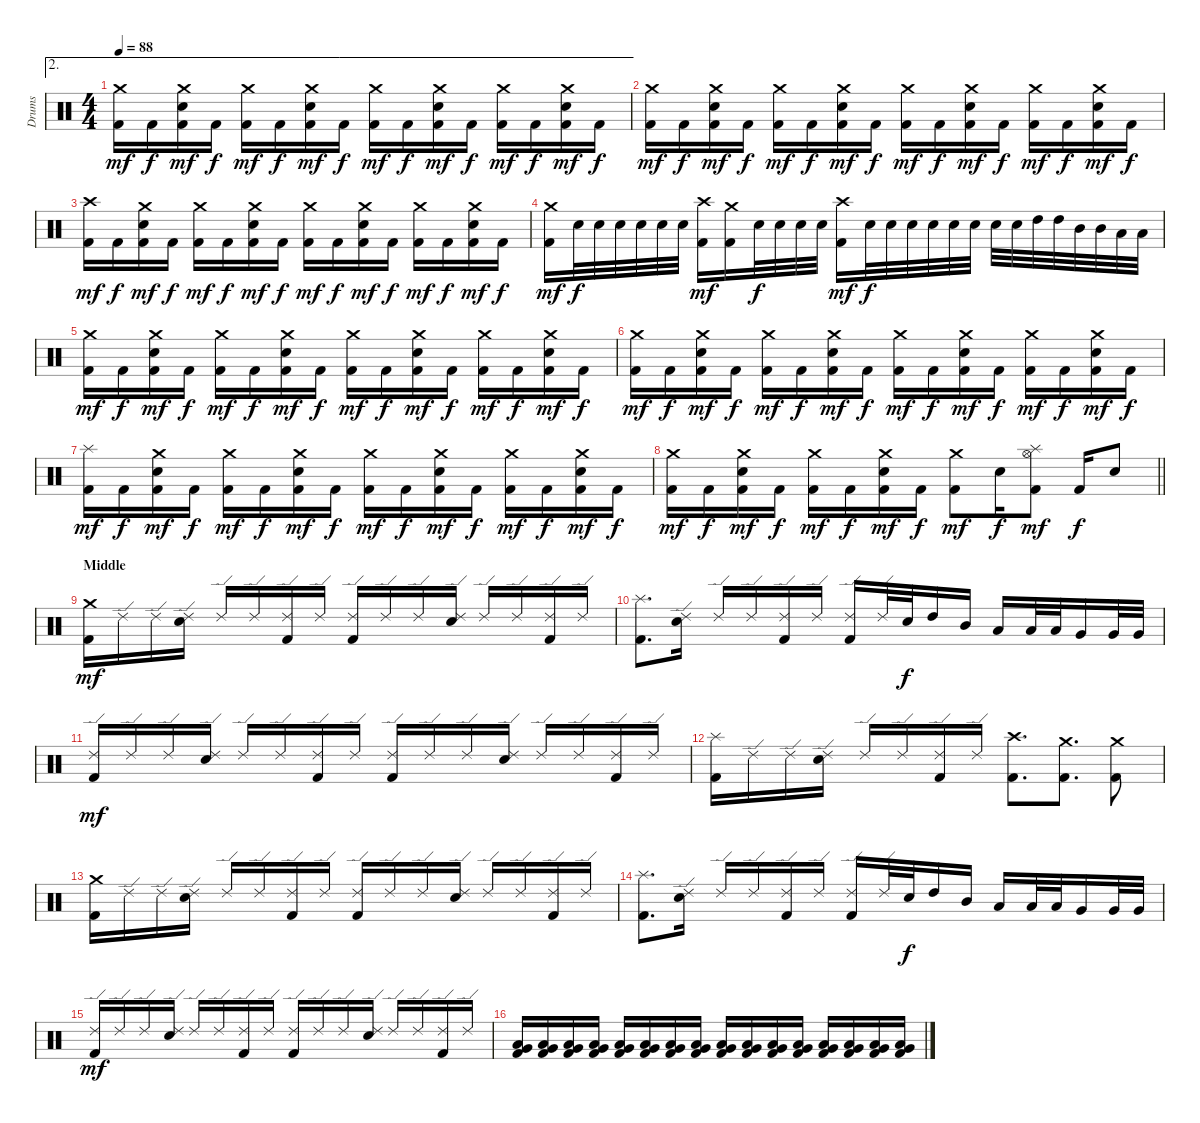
\track ("Drums" "Drums") {instrument percussion}
\staff {score}
\articulation defaults
\ae 2
\ts (4 4)
\tempo 88
\clef neutral
\ks c
("Crash medium (hit)" "Kick (hit) 2").16{dy mf} "Kick (hit) 2".16{dy f} ("Crash medium (hit)" "Electric Snare (hit)" "Kick (hit) 2").16{dy mf} "Kick (hit) 2".16{dy f} ("Crash medium (hit)" "Kick (hit) 2").16{dy mf} "Kick (hit) 2".16{dy f} ("Crash medium (hit)" "Electric Snare (hit)" "Kick (hit) 2").16{dy mf} "Kick (hit) 2".16{dy f} ("Crash medium (hit)" "Kick (hit) 2").16{dy mf} "Kick (hit) 2".16{dy f} ("Crash medium (hit)" "Electric Snare (hit)" "Kick (hit) 2").16{dy mf} "Kick (hit) 2".16{dy f} ("Crash medium (hit)" "Kick (hit) 2").16{dy mf} "Kick (hit) 2".16{dy f} ("Crash medium (hit)" "Electric Snare (hit)" "Kick (hit) 2").16{dy mf} "Kick (hit) 2".16{dy f} |
("Crash medium (hit)" "Kick (hit) 2").16{dy mf} "Kick (hit) 2".16{dy f} ("Crash medium (hit)" "Electric Snare (hit)" "Kick (hit) 2").16{dy mf} "Kick (hit) 2".16{dy f} ("Crash medium (hit)" "Kick (hit) 2").16{dy mf} "Kick (hit) 2".16{dy f} ("Crash medium (hit)" "Electric Snare (hit)" "Kick (hit) 2").16{dy mf} "Kick (hit) 2".16{dy f} ("Crash medium (hit)" "Kick (hit) 2").16{dy mf} "Kick (hit) 2".16{dy f} ("Crash medium (hit)" "Electric Snare (hit)" "Kick (hit) 2").16{dy mf} "Kick (hit) 2".16{dy f} ("Crash medium (hit)" "Kick (hit) 2").16{dy mf} "Kick (hit) 2".16{dy f} ("Crash medium (hit)" "Electric Snare (hit)" "Kick (hit) 2").16{dy mf} "Kick (hit) 2".16{dy f} |
("Crash high (hit)" "Kick (hit) 2").16{dy mf} "Kick (hit) 2".16{dy f} ("Crash medium (hit)" "Electric Snare (hit)" "Kick (hit) 2").16{dy mf} "Kick (hit) 2".16{dy f} ("Crash medium (hit)" "Kick (hit) 2").16{dy mf} "Kick (hit) 2".16{dy f} ("Crash medium (hit)" "Electric Snare (hit)" "Kick (hit) 2").16{dy mf} "Kick (hit) 2".16{dy f} ("Crash medium (hit)" "Kick (hit) 2").16{dy mf} "Kick (hit) 2".16{dy f} ("Crash medium (hit)" "Electric Snare (hit)" "Kick (hit) 2").16{dy mf} "Kick (hit) 2".16{dy f} ("Crash medium (hit)" "Kick (hit) 2").16{dy mf} "Kick (hit) 2".16{dy f} ("Crash medium (hit)" "Electric Snare (hit)" "Kick (hit) 2").16{dy mf} "Kick (hit) 2".16{dy f} |
("Crash medium (hit)" "Kick (hit) 2").16{dy mf} "Electric Snare (hit)".32{dy f} "Electric Snare (hit)".32 "Electric Snare (hit)".32 "Electric Snare (hit)".32 "Electric Snare (hit)".32 "Electric Snare (hit)".32 ("Crash high (hit)" "Kick (hit) 2").16{dy mf} ("Crash medium (hit)" "Kick (hit) 2").16 "Electric Snare (hit)".32{dy f} "Electric Snare (hit)".32 "Electric Snare (hit)".32 "Electric Snare (hit)".32 ("Crash high (hit)" "Kick (hit) 2").16{dy mf} "Electric Snare (hit)".32{dy f} "Electric Snare (hit)".32 "Electric Snare (hit)".32 "Electric Snare (hit)".32 "Electric Snare (hit)".32 "Electric Snare (hit)".32 "Electric Snare (hit)".32 "Electric Snare (hit)".32 "High Tom (hit)".32 "High Tom (hit)".32 "Mid Tom (hit)".32 "Mid Tom (hit)".32 "Low Tom (hit)".32 "Low Tom (hit)".32 |
("Crash medium (hit)" "Kick (hit) 2").16{dy mf} "Kick (hit) 2".16{dy f} ("Crash medium (hit)" "Electric Snare (hit)" "Kick (hit) 2").16{dy mf} "Kick (hit) 2".16{dy f} ("Crash medium (hit)" "Kick (hit) 2").16{dy mf} "Kick (hit) 2".16{dy f} ("Crash medium (hit)" "Electric Snare (hit)" "Kick (hit) 2").16{dy mf} "Kick (hit) 2".16{dy f} ("Crash medium (hit)" "Kick (hit) 2").16{dy mf} "Kick (hit) 2".16{dy f} ("Crash medium (hit)" "Electric Snare (hit)" "Kick (hit) 2").16{dy mf} "Kick (hit) 2".16{dy f} ("Crash medium (hit)" "Kick (hit) 2").16{dy mf} "Kick (hit) 2".16{dy f} ("Crash medium (hit)" "Electric Snare (hit)" "Kick (hit) 2").16{dy mf} "Kick (hit) 2".16{dy f} |
("Crash medium (hit)" "Kick (hit) 2").16{dy mf} "Kick (hit) 2".16{dy f} ("Crash medium (hit)" "Electric Snare (hit)" "Kick (hit) 2").16{dy mf} "Kick (hit) 2".16{dy f} ("Crash medium (hit)" "Kick (hit) 2").16{dy mf} "Kick (hit) 2".16{dy f} ("Crash medium (hit)" "Electric Snare (hit)" "Kick (hit) 2").16{dy mf} "Kick (hit) 2".16{dy f} ("Crash medium (hit)" "Kick (hit) 2").16{dy mf} "Kick (hit) 2".16{dy f} ("Crash medium (hit)" "Electric Snare (hit)" "Kick (hit) 2").16{dy mf} "Kick (hit) 2".16{dy f} ("Crash medium (hit)" "Kick (hit) 2").16{dy mf} "Kick (hit) 2".16{dy f} ("Crash medium (hit)" "Electric Snare (hit)" "Kick (hit) 2").16{dy mf} "Kick (hit) 2".16{dy f} |
("Splash (hit)" "Kick (hit) 2").16{dy mf} "Kick (hit) 2".16{dy f} ("Crash medium (hit)" "Electric Snare (hit)" "Kick (hit) 2").16{dy mf} "Kick (hit) 2".16{dy f} ("Crash medium (hit)" "Kick (hit) 2").16{dy mf} "Kick (hit) 2".16{dy f} ("Crash medium (hit)" "Electric Snare (hit)" "Kick (hit) 2").16{dy mf} "Kick (hit) 2".16{dy f} ("Crash medium (hit)" "Kick (hit) 2").16{dy mf} "Kick (hit) 2".16{dy f} ("Crash medium (hit)" "Electric Snare (hit)" "Kick (hit) 2").16{dy mf} "Kick (hit) 2".16{dy f} ("Crash medium (hit)" "Kick (hit) 2").16{dy mf} "Kick (hit) 2".16{dy f} ("Crash medium (hit)" "Electric Snare (hit)" "Kick (hit) 2").16{dy mf} "Kick (hit) 2".16{dy f} |
\barLineRight lightlight
("Crash medium (hit)" "Kick (hit) 2").16{dy mf} "Kick (hit) 2".16{dy f} ("Crash medium (hit)" "Electric Snare (hit)" "Kick (hit) 2").16{dy mf} "Kick (hit) 2".16{dy f} ("Crash medium (hit)" "Kick (hit) 2").16{dy mf} "Kick (hit) 2".16{dy f} ("Crash medium (hit)" "Electric Snare (hit)" "Kick (hit) 2").16{dy mf} "Kick (hit) 2".16{dy f} ("Crash medium (hit)" "Kick (hit) 2").8{dy mf} "Electric Snare (hit)".16{dy f} ("Hi-Hat (open)" "Splash (hit)" "Kick (hit) 2").8{dy mf} "Kick (hit) 2".16{dy f} "Electric Snare (hit)".8 |
\section ("" "Middle")
("Crash medium (hit)" "Kick (hit) 2").16{dy mf} "Ride (edge) 2".16 "Ride (edge) 2".16 ("Ride (edge) 2" "Electric Snare (hit)").16 "Ride (edge) 2".16 "Ride (edge) 2".16 ("Ride (edge) 2" "Kick (hit) 2").16 "Ride (edge) 2".16 ("Ride (edge) 2" "Kick (hit) 2").16 "Ride (edge) 2".16 "Ride (edge) 2".16 ("Ride (edge) 2" "Electric Snare (hit)").16 "Ride (edge) 2".16 "Ride (edge) 2".16 ("Ride (edge) 2" "Kick (hit) 2").16 "Ride (edge) 2".16 |
("Splash (hit)" "Kick (hit) 2").8{d} ("Ride (edge) 2" "Electric Snare (hit)").16 "Ride (edge) 2".16 "Ride (edge) 2".16 ("Ride (edge) 2" "Kick (hit) 2").16 "Ride (edge) 2".16 ("Ride (edge) 2" "Kick (hit) 2").16 "Ride (edge) 2".32 "Electric Snare (hit)".32{dy f} "High Tom (hit)".16 "Mid Tom (hit)".16 "Low Tom (hit)".16 "Low Tom (hit)".32 "Low Tom (hit)".32 "Very Low Tom (hit)".16 "Very Low Tom (hit)".32 "Very Low Tom (hit)".32 |
("Ride (edge) 2" "Kick (hit) 2").16{dy mf} "Ride (edge) 2".16 "Ride (edge) 2".16 ("Ride (edge) 2" "Electric Snare (hit)").16 "Ride (edge) 2".16 "Ride (edge) 2".16 ("Ride (edge) 2" "Kick (hit) 2").16 "Ride (edge) 2".16 ("Ride (edge) 2" "Kick (hit) 2").16 "Ride (edge) 2".16 "Ride (edge) 2".16 ("Ride (edge) 2" "Electric Snare (hit)").16 "Ride (edge) 2".16 "Ride (edge) 2".16 ("Ride (edge) 2" "Kick (hit) 2").16 "Ride (edge) 2".16 |
("Splash (hit)" "Kick (hit) 2").16 "Ride (edge) 2".16 "Ride (edge) 2".16 ("Ride (edge) 2" "Electric Snare (hit)").16 "Ride (edge) 2".16 "Ride (edge) 2".16 ("Ride (edge) 2" "Kick (hit) 2").16 "Ride (edge) 2".16 ("Crash high (hit)" "Kick (hit) 2").8{d} ("Crash medium (hit)" "Kick (hit) 2").8{d} ("Crash medium (hit)" "Kick (hit) 2").8 |
("Crash medium (hit)" "Kick (hit) 2").16 "Ride (edge) 2".16 "Ride (edge) 2".16 ("Ride (edge) 2" "Electric Snare (hit)").16 "Ride (edge) 2".16 "Ride (edge) 2".16 ("Ride (edge) 2" "Kick (hit) 2").16 "Ride (edge) 2".16 ("Ride (edge) 2" "Kick (hit) 2").16 "Ride (edge) 2".16 "Ride (edge) 2".16 ("Ride (edge) 2" "Electric Snare (hit)").16 "Ride (edge) 2".16 "Ride (edge) 2".16 ("Ride (edge) 2" "Kick (hit) 2").16 "Ride (edge) 2".16 |
("Splash (hit)" "Kick (hit) 2").8{d} ("Ride (edge) 2" "Electric Snare (hit)").16 "Ride (edge) 2".16 "Ride (edge) 2".16 ("Ride (edge) 2" "Kick (hit) 2").16 "Ride (edge) 2".16 ("Ride (edge) 2" "Kick (hit) 2").16 "Ride (edge) 2".32 "Electric Snare (hit)".32{dy f} "High Tom (hit)".16 "Mid Tom (hit)".16 "Low Tom (hit)".16 "Low Tom (hit)".32 "Low Tom (hit)".32 "Very Low Tom (hit)".16 "Very Low Tom (hit)".32 "Very Low Tom (hit)".32 |
("Ride (edge) 2" "Kick (hit) 2").16{dy mf} "Ride (edge) 2".16 "Ride (edge) 2".16 ("Ride (edge) 2" "Electric Snare (hit)").16 "Ride (edge) 2".16 "Ride (edge) 2".16 ("Ride (edge) 2" "Kick (hit) 2").16 "Ride (edge) 2".16 ("Ride (edge) 2" "Kick (hit) 2").16 "Ride (edge) 2".16 "Ride (edge) 2".16 ("Ride (edge) 2" "Electric Snare (hit)").16 "Ride (edge) 2".16 "Ride (edge) 2".16 ("Ride (edge) 2" "Kick (hit) 2").16 "Ride (edge) 2".16 |
("Very Low Tom (hit)" "Low Floor Tom (hit)" "Kick (hit) 2").16{volume 6} ("Very Low Tom (hit)" "Low Floor Tom (hit)" "Kick (hit) 2").16{volume 13} ("Very Low Tom (hit)" "Low Floor Tom (hit)" "Kick (hit) 2").16 ("Very Low Tom (hit)" "Low Floor Tom (hit)" "Kick (hit) 2").16 ("Very Low Tom (hit)" "Low Floor Tom (hit)" "Kick (hit) 2").16 ("Very Low Tom (hit)" "Low Floor Tom (hit)" "Kick (hit) 2").16 ("Very Low Tom (hit)" "Low Floor Tom (hit)" "Kick (hit) 2").16 ("Very Low Tom (hit)" "Low Floor Tom (hit)" "Kick (hit) 2").16 ("Very Low Tom (hit)" "Low Floor Tom (hit)" "Kick (hit) 2").16 ("Very Low Tom (hit)" "Low Floor Tom (hit)" "Kick (hit) 2").16 ("Very Low Tom (hit)" "Low Floor Tom (hit)" "Kick (hit) 2").16 ("Very Low Tom (hit)" "Low Floor Tom (hit)" "Kick (hit) 2").16 ("Very Low Tom (hit)" "Low Floor Tom (hit)" "Kick (hit) 2").16 ("Very Low Tom (hit)" "Low Floor Tom (hit)" "Kick (hit) 2").16 ("Very Low Tom (hit)" "Low Floor Tom (hit)" "Kick (hit) 2").16 ("Very Low Tom (hit)" "Low Floor Tom (hit)" "Kick (hit) 2").16
